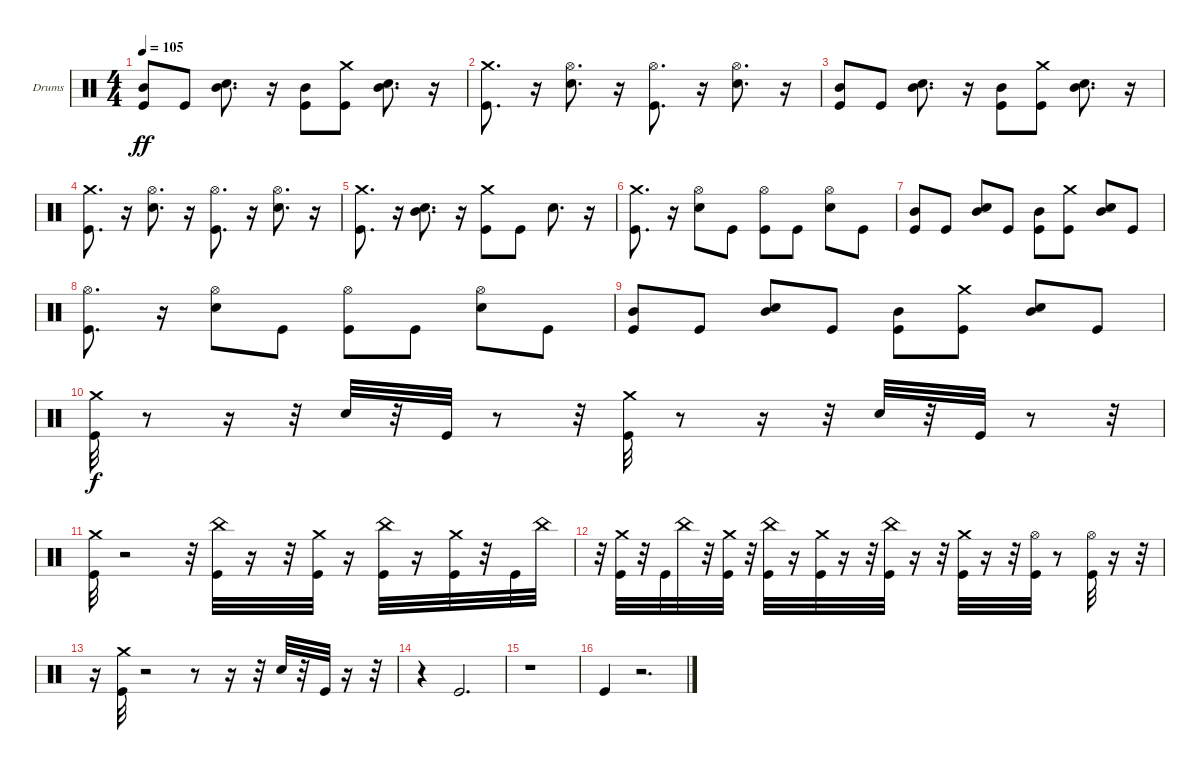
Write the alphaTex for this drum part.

\defaultSystemsLayout 4
\bracketExtendMode groupsimilarinstruments
\firstSystemTrackNameOrientation horizontal
\otherSystemsTrackNameOrientation horizontal
\track ("Drumkit" "Drums") {instrument percussion}
\staff {score}
\articulation defaults
\ts (4 4)
\tempo 105
\clef neutral
\ks c
("Kick (hit)" "Mid Tom (hit)").8{dy ff} "Kick (hit)".8 ("Snare (hit) 2" "Mid Tom (hit)").8{d} r.16 ("Kick (hit)" "Mid Tom (hit)").8 ("Kick (hit)" "Crash medium (hit)").8 ("Snare (hit) 2" "Mid Tom (hit)").8{d} r.16 |
("Kick (hit)" "Crash medium (hit)").8{d} r.16 ("Snare (hit) 2" "Hi-Hat (open)").8{d} r.16 ("Kick (hit)" "Hi-Hat (open)").8{d} r.16 ("Snare (hit) 2" "Hi-Hat (open)").8{d} r.16 |
("Kick (hit)" "Mid Tom (hit)").8 "Kick (hit)".8 ("Snare (hit) 2" "Mid Tom (hit)").8{d} r.16 ("Kick (hit)" "Mid Tom (hit)").8 ("Kick (hit)" "Crash medium (hit)").8 ("Snare (hit) 2" "Mid Tom (hit)").8{d} r.16 |
("Kick (hit)" "Crash medium (hit)").8{d} r.16 ("Snare (hit) 2" "Hi-Hat (open)").8{d} r.16 ("Kick (hit)" "Hi-Hat (open)").8{d} r.16 ("Snare (hit) 2" "Hi-Hat (open)").8{d} r.16 |
("Kick (hit)" "Crash medium (hit)").8{d} r.16 ("Snare (hit) 2" "Mid Tom (hit)").8{d} r.16 ("Kick (hit)" "Crash medium (hit)").8 "Kick (hit)".8 "Snare (hit) 2".8{d} r.16 |
("Kick (hit)" "Crash medium (hit)").8{d} r.16 ("Snare (hit) 2" "Hi-Hat (open)").8 "Kick (hit)".8 ("Kick (hit)" "Hi-Hat (open)").8 "Kick (hit)".8 ("Snare (hit) 2" "Hi-Hat (open)").8 "Kick (hit)".8 |
("Kick (hit)" "Mid Tom (hit)").8 "Kick (hit)".8 ("Snare (hit) 2" "Mid Tom (hit)").8 "Kick (hit)".8 ("Kick (hit)" "Mid Tom (hit)").8 ("Kick (hit)" "Crash medium (hit)").8 ("Snare (hit) 2" "Mid Tom (hit)").8 "Kick (hit)".8 |
("Kick (hit)" "Hi-Hat (open)").8{d} r.16 ("Snare (hit) 2" "Hi-Hat (open)").8 "Kick (hit)".8 ("Kick (hit)" "Hi-Hat (open)").8 "Kick (hit)".8 ("Snare (hit) 2" "Hi-Hat (open)").8 "Kick (hit)".8 |
("Kick (hit)" "Mid Tom (hit)").8 "Kick (hit)".8 ("Snare (hit) 2" "Mid Tom (hit)").8 "Kick (hit)".8 ("Kick (hit)" "Mid Tom (hit)").8 ("Kick (hit)" "Crash medium (hit)").8 ("Snare (hit) 2" "Mid Tom (hit)").8 "Kick (hit)".8 |
("Crash medium (hit)" "Kick (hit)").32{dy f} r.8 r.16 r.32 "Snare (hit) 2".32 r.32 "Kick (hit)".32 r.8 r.32 ("Crash medium (hit)" "Kick (hit)").32 r.8 r.16 r.32 "Snare (hit) 2".32 r.32 "Kick (hit)".32 r.8 r.32 |
("Kick (hit)" "Crash medium (hit)").32 r.2 r.32 ("Kick (hit)" "China (hit)").32 r.16 r.32 ("Kick (hit)" "Crash medium (hit)").32 r.16 ("China (hit)" "Kick (hit)").32 r.16 ("Kick (hit)" "Crash medium (hit)").32 r.32 "Kick (hit)".32 "China (hit)".32 |
r.32 ("Kick (hit)" "Crash medium (hit)").32 r.32 "Kick (hit)".32 "China (hit)".32 r.32 ("Kick (hit)" "Crash medium (hit)").32 r.32 ("Kick (hit)" "China (hit)").32 r.16 ("Crash medium (hit)" "Kick (hit)").32 r.16 r.32 ("Kick (hit)" "China (hit)").32 r.16 r.32 ("Crash medium (hit)" "Kick (hit)").32 r.16 r.32 ("Kick (hit)" "Hi-Hat (open)").32 r.8 ("Hi-Hat (open)" "Kick (hit)").32 r.16 r.32 |
r.16 ("Crash medium (hit)" "Kick (hit)").32 r.2 r.8 r.16 r.32 "Snare (hit) 2".32 r.32 "Kick (hit)".32 r.16 r.32 |
r.4 "Kick (hit)".2{d} |
r.1 |
"Kick (hit)".4 r.2{d}
